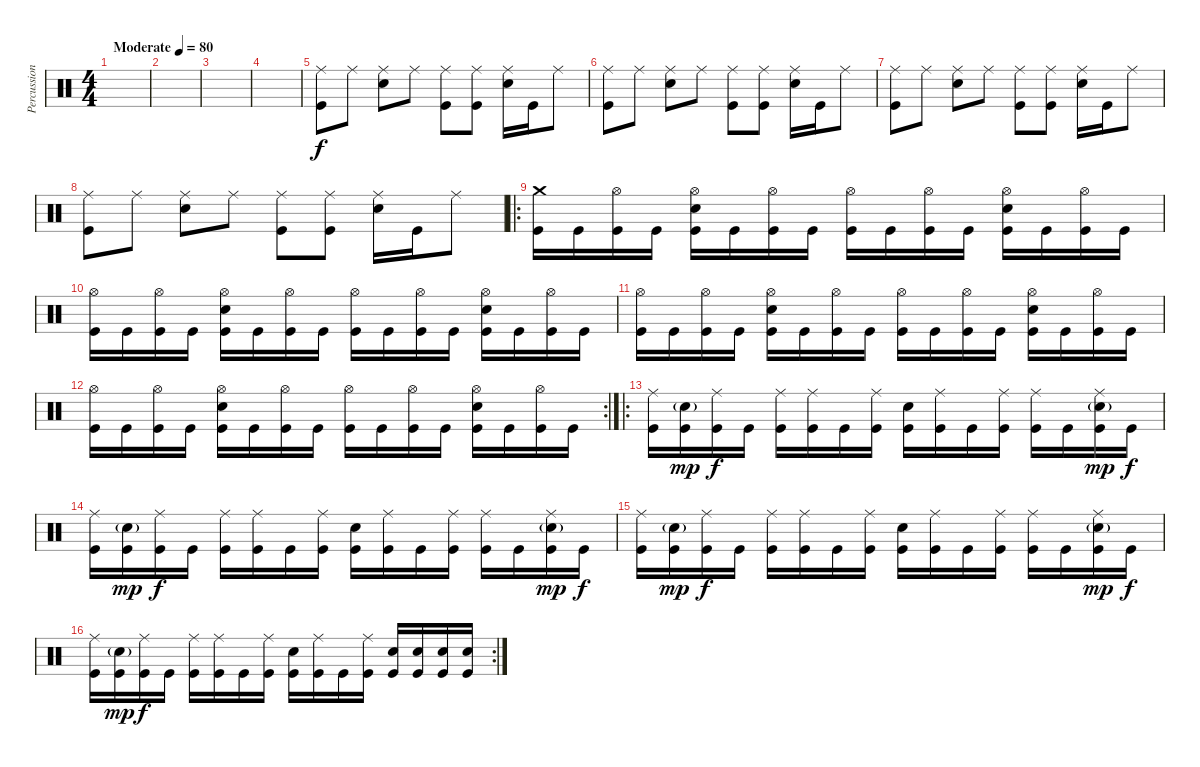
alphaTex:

\track ("Percussion" "Percussion") {instrument percussion}
\staff {score}
\articulation defaults
\ts (4 4)
\tempo (80 "Moderate")
\clef neutral
\ks c
|
|
|
|
("Ride (middle)" "Kick (hit)").8 "Ride (middle)".8 ("Ride (middle)" "Snare (hit) 2").8 "Ride (middle)".8 ("Ride (middle)" "Kick (hit)").8 ("Ride (middle)" "Kick (hit)").8 ("Ride (middle)" "Snare (hit) 2").16 "Kick (hit)".16 "Ride (middle)".8 |
("Ride (middle)" "Kick (hit)").8 "Ride (middle)".8 ("Ride (middle)" "Snare (hit) 2").8 "Ride (middle)".8 ("Ride (middle)" "Kick (hit)").8 ("Ride (middle)" "Kick (hit)").8 ("Ride (middle)" "Snare (hit) 2").16 "Kick (hit)".16 "Ride (middle)".8 |
("Ride (middle)" "Kick (hit)").8 "Ride (middle)".8 ("Ride (middle)" "Snare (hit) 2").8 "Ride (middle)".8 ("Ride (middle)" "Kick (hit)").8 ("Ride (middle)" "Kick (hit)").8 ("Ride (middle)" "Snare (hit) 2").16 "Kick (hit)".16 "Ride (middle)".8 |
("Ride (middle)" "Kick (hit)").8 "Ride (middle)".8 ("Ride (middle)" "Snare (hit) 2").8 "Ride (middle)".8 ("Ride (middle)" "Kick (hit)").8 ("Ride (middle)" "Kick (hit)").8 ("Ride (middle)" "Snare (hit) 2").16 "Kick (hit)".16 "Ride (middle)".8 |
\ro
("Crash medium (hit)" "Kick (hit)").16 "Kick (hit)".16 ("Hi-Hat (open)" "Kick (hit)").16 "Kick (hit)".16 ("Hi-Hat (open)" "Snare (hit) 2" "Kick (hit)").16 "Kick (hit)".16 ("Hi-Hat (open)" "Kick (hit)").16 "Kick (hit)".16 ("Hi-Hat (open)" "Kick (hit)").16 "Kick (hit)".16 ("Hi-Hat (open)" "Kick (hit)").16 "Kick (hit)".16 ("Hi-Hat (open)" "Snare (hit) 2" "Kick (hit)").16 "Kick (hit)".16 ("Hi-Hat (open)" "Kick (hit)").16 "Kick (hit)".16 |
("Hi-Hat (open)" "Kick (hit)").16 "Kick (hit)".16 ("Hi-Hat (open)" "Kick (hit)").16 "Kick (hit)".16 ("Hi-Hat (open)" "Snare (hit) 2" "Kick (hit)").16 "Kick (hit)".16 ("Hi-Hat (open)" "Kick (hit)").16 "Kick (hit)".16 ("Hi-Hat (open)" "Kick (hit)").16 "Kick (hit)".16 ("Hi-Hat (open)" "Kick (hit)").16 "Kick (hit)".16 ("Hi-Hat (open)" "Snare (hit) 2" "Kick (hit)").16 "Kick (hit)".16 ("Hi-Hat (open)" "Kick (hit)").16 "Kick (hit)".16 |
("Hi-Hat (open)" "Kick (hit)").16 "Kick (hit)".16 ("Hi-Hat (open)" "Kick (hit)").16 "Kick (hit)".16 ("Hi-Hat (open)" "Snare (hit) 2" "Kick (hit)").16 "Kick (hit)".16 ("Hi-Hat (open)" "Kick (hit)").16 "Kick (hit)".16 ("Hi-Hat (open)" "Kick (hit)").16 "Kick (hit)".16 ("Hi-Hat (open)" "Kick (hit)").16 "Kick (hit)".16 ("Hi-Hat (open)" "Snare (hit) 2" "Kick (hit)").16 "Kick (hit)".16 ("Hi-Hat (open)" "Kick (hit)").16 "Kick (hit)".16 |
\rc 2
("Hi-Hat (open)" "Kick (hit)").16 "Kick (hit)".16 ("Hi-Hat (open)" "Kick (hit)").16 "Kick (hit)".16 ("Hi-Hat (open)" "Snare (hit) 2" "Kick (hit)").16 "Kick (hit)".16 ("Hi-Hat (open)" "Kick (hit)").16 "Kick (hit)".16 ("Hi-Hat (open)" "Kick (hit)").16 "Kick (hit)".16 ("Hi-Hat (open)" "Kick (hit)").16 "Kick (hit)".16 ("Hi-Hat (open)" "Snare (hit) 2" "Kick (hit)").16 "Kick (hit)".16 ("Hi-Hat (open)" "Kick (hit)").16 "Kick (hit)".16 |
\ro
("Ride (middle)" "Kick (hit)").16 ("Snare (hit) 2"{g} "Kick (hit)").16{dy mp} ("Ride (middle)" "Kick (hit)").16{dy f} "Kick (hit)".16 ("Ride (middle)" "Kick (hit)").16 ("Ride (middle)" "Kick (hit)").16 "Kick (hit)".16 ("Ride (middle)" "Kick (hit)").16 ("Snare (hit) 2" "Kick (hit)").16 ("Ride (middle)" "Kick (hit)").16 "Kick (hit)".16 ("Ride (middle)" "Kick (hit)").16 ("Ride (middle)" "Kick (hit)").16 "Kick (hit)".16 ("Ride (middle)" "Snare (hit) 2"{g} "Kick (hit)").16{dy mp} "Kick (hit)".16{dy f} |
("Ride (middle)" "Kick (hit)").16 ("Snare (hit) 2"{g} "Kick (hit)").16{dy mp} ("Ride (middle)" "Kick (hit)").16{dy f} "Kick (hit)".16 ("Ride (middle)" "Kick (hit)").16 ("Ride (middle)" "Kick (hit)").16 "Kick (hit)".16 ("Ride (middle)" "Kick (hit)").16 ("Snare (hit) 2" "Kick (hit)").16 ("Ride (middle)" "Kick (hit)").16 "Kick (hit)".16 ("Ride (middle)" "Kick (hit)").16 ("Ride (middle)" "Kick (hit)").16 "Kick (hit)".16 ("Ride (middle)" "Snare (hit) 2"{g} "Kick (hit)").16{dy mp} "Kick (hit)".16{dy f} |
("Ride (middle)" "Kick (hit)").16 ("Snare (hit) 2"{g} "Kick (hit)").16{dy mp} ("Ride (middle)" "Kick (hit)").16{dy f} "Kick (hit)".16 ("Ride (middle)" "Kick (hit)").16 ("Ride (middle)" "Kick (hit)").16 "Kick (hit)".16 ("Ride (middle)" "Kick (hit)").16 ("Snare (hit) 2" "Kick (hit)").16 ("Ride (middle)" "Kick (hit)").16 "Kick (hit)".16 ("Ride (middle)" "Kick (hit)").16 ("Ride (middle)" "Kick (hit)").16 "Kick (hit)".16 ("Ride (middle)" "Snare (hit) 2"{g} "Kick (hit)").16{dy mp} "Kick (hit)".16{dy f} |
\rc 2
("Ride (middle)" "Kick (hit)").16 ("Snare (hit) 2"{g} "Kick (hit)").16{dy mp} ("Ride (middle)" "Kick (hit)").16{dy f} "Kick (hit)".16 ("Ride (middle)" "Kick (hit)").16 ("Ride (middle)" "Kick (hit)").16 "Kick (hit)".16 ("Ride (middle)" "Kick (hit)").16 ("Snare (hit) 2" "Kick (hit)").16 ("Ride (middle)" "Kick (hit)").16 "Kick (hit)".16 ("Ride (middle)" "Kick (hit)").16 ("Snare (hit) 2" "Kick (hit)").16 ("Snare (hit) 2" "Kick (hit)").16 ("Snare (hit) 2" "Kick (hit)").16 ("Snare (hit) 2" "Kick (hit)").16
